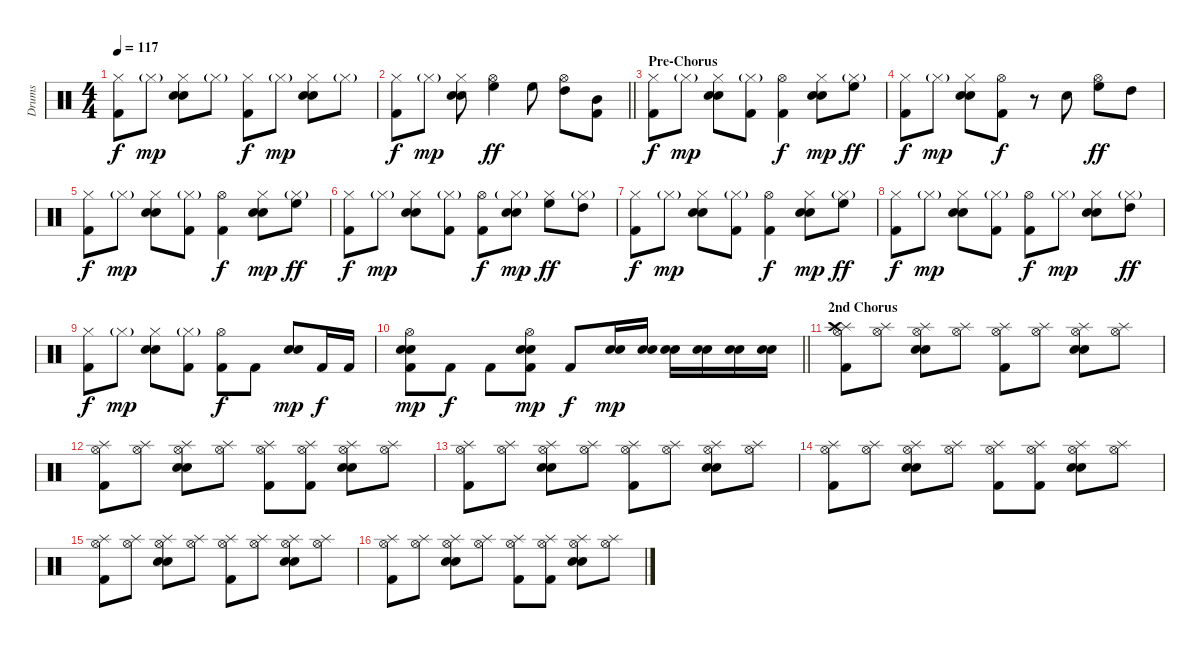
\track ("Drums" "Drums") {instrument percussion}
\staff {score}
\articulation defaults
\ts (4 4)
\tempo 117
\clef neutral
\ks c
("Hi-Hat (closed)" "Kick (hit) 2").8{dy f} "Hi-Hat (closed)"{g}.8{dy mp} ("Hi-Hat (closed)" "Electric Snare (hit)" "Snare (hit) 2").8 "Hi-Hat (closed)"{g}.8 ("Hi-Hat (closed)" "Kick (hit) 2").8{dy f} "Hi-Hat (closed)"{g}.8{dy mp} ("Hi-Hat (closed)" "Electric Snare (hit)" "Snare (hit) 2").8 "Hi-Hat (closed)"{g}.8 |
\barLineRight lightlight
("Hi-Hat (closed)" "Kick (hit) 2").8{dy f} "Hi-Hat (closed)"{g}.8{dy mp} ("Hi-Hat (closed)" "Electric Snare (hit)" "Snare (hit) 2").8 ("Hi-Hat (open)" "High Floor Tom (hit)").4{dy ff} "High Floor Tom (hit)".8 ("Hi-Hat (open)" "High Tom (hit)").8 ("Mid Tom (hit)" "Kick (hit) 2").8 |
\section ("" "Pre-Chorus")
("Hi-Hat (closed)" "Kick (hit) 2").8{dy f} "Hi-Hat (closed)"{g}.8{dy mp} ("Hi-Hat (closed)" "Electric Snare (hit)" "Snare (hit) 2").8 ("Hi-Hat (closed)"{g} "Kick (hit) 2").8 ("Hi-Hat (open)" "Kick (hit) 2").4{dy f} ("Hi-Hat (closed)" "Electric Snare (hit)" "Snare (hit) 2").8{dy mp} ("Hi-Hat (closed)"{g} "High Floor Tom (hit)").8{dy ff} |
("Hi-Hat (closed)" "Kick (hit) 2").8{dy f} "Hi-Hat (closed)"{g}.8{dy mp} ("Hi-Hat (closed)" "Electric Snare (hit)" "Snare (hit) 2").8 ("Hi-Hat (open)" "Kick (hit) 2").8{dy f} r.8 "Electric Snare (hit)".8 ("Hi-Hat (open)" "High Floor Tom (hit)").8{dy ff} "High Tom (hit)".8 |
("Hi-Hat (closed)" "Kick (hit) 2").8{dy f} "Hi-Hat (closed)"{g}.8{dy mp} ("Hi-Hat (closed)" "Electric Snare (hit)" "Snare (hit) 2").8 ("Hi-Hat (closed)"{g} "Kick (hit) 2").8 ("Hi-Hat (open)" "Kick (hit) 2").4{dy f} ("Hi-Hat (closed)" "Electric Snare (hit)" "Snare (hit) 2").8{dy mp} ("Hi-Hat (closed)"{g} "High Floor Tom (hit)").8{dy ff} |
("Hi-Hat (closed)" "Kick (hit) 2").8{dy f} "Hi-Hat (closed)"{g}.8{dy mp} ("Hi-Hat (closed)" "Electric Snare (hit)" "Snare (hit) 2").8 ("Hi-Hat (closed)"{g} "Kick (hit) 2").8 ("Hi-Hat (open)" "Kick (hit) 2").8{dy f} ("Hi-Hat (closed)"{g} "Electric Snare (hit)" "Snare (hit) 2").8{dy mp} ("Hi-Hat (closed)" "High Floor Tom (hit)").8{dy ff} ("Hi-Hat (closed)"{g} "High Tom (hit)").8 |
("Hi-Hat (closed)" "Kick (hit) 2").8{dy f} "Hi-Hat (closed)"{g}.8{dy mp} ("Hi-Hat (closed)" "Electric Snare (hit)" "Snare (hit) 2").8 ("Hi-Hat (closed)"{g} "Kick (hit) 2").8 ("Hi-Hat (open)" "Kick (hit) 2").4{dy f} ("Hi-Hat (closed)" "Electric Snare (hit)" "Snare (hit) 2").8{dy mp} ("Hi-Hat (closed)"{g} "High Floor Tom (hit)").8{dy ff} |
("Hi-Hat (closed)" "Kick (hit) 2").8{dy f} "Hi-Hat (closed)"{g}.8{dy mp} ("Hi-Hat (closed)" "Electric Snare (hit)" "Snare (hit) 2").8 ("Hi-Hat (closed)"{g} "Kick (hit) 2").8 ("Hi-Hat (open)" "Kick (hit) 2").8{dy f} "Hi-Hat (closed)"{g}.8{dy mp} ("Hi-Hat (closed)" "Electric Snare (hit)" "Snare (hit) 2").8 ("Hi-Hat (closed)"{g} "High Tom (hit)").8{dy ff} |
("Hi-Hat (closed)" "Kick (hit) 2").8{dy f} "Hi-Hat (closed)"{g}.8{dy mp} ("Hi-Hat (closed)" "Electric Snare (hit)" "Snare (hit) 2").8 ("Hi-Hat (closed)"{g} "Kick (hit) 2").8 ("Hi-Hat (open)" "Kick (hit) 2").8{dy f} "Kick (hit) 2".8 ("Electric Snare (hit)" "Snare (hit) 2").8{dy mp} "Kick (hit) 2".16{dy f} "Kick (hit) 2".16 |
\barLineRight lightlight
("Hi-Hat (open)" "Electric Snare (hit)" "Snare (hit) 2" "Kick (hit) 2").8{dy mp} "Kick (hit) 2".8{dy f} "Kick (hit) 2".8 ("Hi-Hat (open)" "Electric Snare (hit)" "Snare (hit) 2" "Kick (hit) 2").8{dy mp} "Kick (hit) 2".8{dy f} ("Electric Snare (hit)" "Snare (hit) 2").16{dy mp} ("Electric Snare (hit)" "Snare (hit) 2").16 ("Electric Snare (hit)" "Snare (hit) 2").16 ("Electric Snare (hit)" "Snare (hit) 2").16 ("Electric Snare (hit)" "Snare (hit) 2").16 ("Electric Snare (hit)" "Snare (hit) 2").16 |
\section ("" "2nd Chorus")
("Splash (hit)" "Crash high (hit)" "Hi-Hat (open)" "Kick (hit) 2").8 ("Splash (hit)" "Hi-Hat (open)").8 ("Splash (hit)" "Hi-Hat (open)" "Electric Snare (hit)" "Snare (hit) 2").8 ("Splash (hit)" "Hi-Hat (open)").8 ("Splash (hit)" "Hi-Hat (open)" "Kick (hit) 2").8 ("Splash (hit)" "Hi-Hat (open)").8 ("Splash (hit)" "Hi-Hat (open)" "Electric Snare (hit)" "Snare (hit) 2").8 ("Splash (hit)" "Hi-Hat (open)").8 |
("Splash (hit)" "Hi-Hat (open)" "Kick (hit) 2").8 ("Splash (hit)" "Hi-Hat (open)").8 ("Splash (hit)" "Hi-Hat (open)" "Electric Snare (hit)" "Snare (hit) 2").8 ("Splash (hit)" "Hi-Hat (open)").8 ("Splash (hit)" "Hi-Hat (open)" "Kick (hit) 2").8 ("Splash (hit)" "Hi-Hat (open)" "Kick (hit) 2").8 ("Splash (hit)" "Hi-Hat (open)" "Electric Snare (hit)" "Snare (hit) 2").8 ("Splash (hit)" "Hi-Hat (open)").8 |
("Splash (hit)" "Hi-Hat (open)" "Kick (hit) 2").8 ("Splash (hit)" "Hi-Hat (open)").8 ("Splash (hit)" "Hi-Hat (open)" "Electric Snare (hit)" "Snare (hit) 2").8 ("Splash (hit)" "Hi-Hat (open)").8 ("Splash (hit)" "Hi-Hat (open)" "Kick (hit) 2").8 ("Splash (hit)" "Hi-Hat (open)").8 ("Splash (hit)" "Hi-Hat (open)" "Electric Snare (hit)" "Snare (hit) 2").8 ("Splash (hit)" "Hi-Hat (open)").8 |
("Splash (hit)" "Hi-Hat (open)" "Kick (hit) 2").8 ("Splash (hit)" "Hi-Hat (open)").8 ("Splash (hit)" "Hi-Hat (open)" "Electric Snare (hit)" "Snare (hit) 2").8 ("Splash (hit)" "Hi-Hat (open)").8 ("Splash (hit)" "Hi-Hat (open)" "Kick (hit) 2").8 ("Splash (hit)" "Hi-Hat (open)" "Kick (hit) 2").8 ("Splash (hit)" "Hi-Hat (open)" "Electric Snare (hit)" "Snare (hit) 2").8 ("Splash (hit)" "Hi-Hat (open)").8 |
("Splash (hit)" "Hi-Hat (open)" "Kick (hit) 2").8 ("Splash (hit)" "Hi-Hat (open)").8 ("Splash (hit)" "Hi-Hat (open)" "Electric Snare (hit)" "Snare (hit) 2").8 ("Splash (hit)" "Hi-Hat (open)").8 ("Splash (hit)" "Hi-Hat (open)" "Kick (hit) 2").8 ("Splash (hit)" "Hi-Hat (open)").8 ("Splash (hit)" "Hi-Hat (open)" "Electric Snare (hit)" "Snare (hit) 2").8 ("Splash (hit)" "Hi-Hat (open)").8 |
("Splash (hit)" "Hi-Hat (open)" "Kick (hit) 2").8 ("Splash (hit)" "Hi-Hat (open)").8 ("Splash (hit)" "Hi-Hat (open)" "Electric Snare (hit)" "Snare (hit) 2").8 ("Splash (hit)" "Hi-Hat (open)").8 ("Splash (hit)" "Hi-Hat (open)" "Kick (hit) 2").8 ("Splash (hit)" "Hi-Hat (open)" "Kick (hit) 2").8 ("Splash (hit)" "Hi-Hat (open)" "Electric Snare (hit)" "Snare (hit) 2").8 ("Splash (hit)" "Hi-Hat (open)").8
